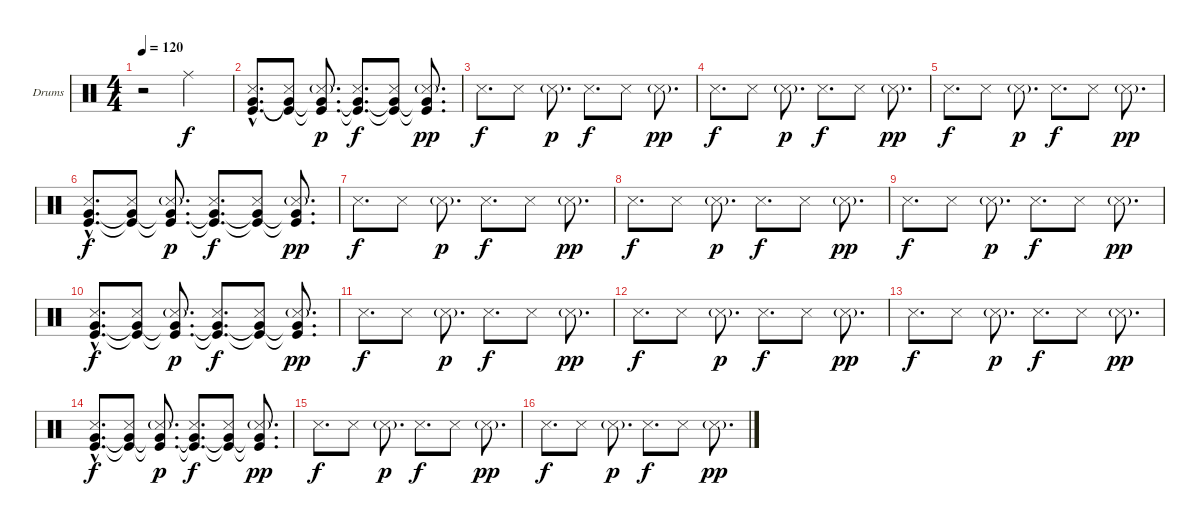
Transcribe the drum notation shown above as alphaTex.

\bracketExtendMode groupsimilarinstruments
\firstSystemTrackNameOrientation horizontal
\otherSystemsTrackNameOrientation horizontal
\track ("Drumkit (Christoph)" "Drums") {instrument percussion}
\staff {score}
\articulation defaults
\ts (4 4)
\tempo 120
\clef neutral
\ks c
r.2{dy f} "Ride (middle)".2 |
("Snare (side stick) 3" "Kick (hit)"{hac} "Very Low Tom (hit)"{hac}).8{d} ("Snare (side stick) 3" "Very Low Tom (hit)"{t} "Kick (hit)"{t}).8 ("Snare (side stick) 3"{g} "Very Low Tom (hit)"{t} "Kick (hit)"{t}).8{d dy p} ("Snare (side stick) 3" "Very Low Tom (hit)"{t} "Kick (hit)"{t}).8{d dy f} ("Snare (side stick) 3" "Very Low Tom (hit)"{t} "Kick (hit)"{t}).8 ("Snare (side stick) 3"{g} "Very Low Tom (hit)"{t} "Kick (hit)"{t}).8{d dy pp} |
"Snare (side stick) 3".8{d dy f} "Snare (side stick) 3".8 "Snare (side stick) 3"{g}.8{d dy p} "Snare (side stick) 3".8{d dy f} "Snare (side stick) 3".8 "Snare (side stick) 3"{g}.8{d dy pp} |
"Snare (side stick) 3".8{d dy f} "Snare (side stick) 3".8 "Snare (side stick) 3"{g}.8{d dy p} "Snare (side stick) 3".8{d dy f} "Snare (side stick) 3".8 "Snare (side stick) 3"{g}.8{d dy pp} |
"Snare (side stick) 3".8{d dy f} "Snare (side stick) 3".8 "Snare (side stick) 3"{g}.8{d dy p} "Snare (side stick) 3".8{d dy f} "Snare (side stick) 3".8 "Snare (side stick) 3"{g}.8{d dy pp} |
("Snare (side stick) 3" "Kick (hit)"{hac} "Very Low Tom (hit)"{hac}).8{d dy f} ("Snare (side stick) 3" "Kick (hit)"{t} "Very Low Tom (hit)"{t}).8 ("Snare (side stick) 3"{g} "Kick (hit)"{t} "Very Low Tom (hit)"{t}).8{d dy p} ("Snare (side stick) 3" "Kick (hit)"{t} "Very Low Tom (hit)"{t}).8{d dy f} ("Snare (side stick) 3" "Kick (hit)"{t} "Very Low Tom (hit)"{t}).8 ("Snare (side stick) 3"{g} "Kick (hit)"{t} "Very Low Tom (hit)"{t}).8{d dy pp} |
"Snare (side stick) 3".8{d dy f} "Snare (side stick) 3".8 "Snare (side stick) 3"{g}.8{d dy p} "Snare (side stick) 3".8{d dy f} "Snare (side stick) 3".8 "Snare (side stick) 3"{g}.8{d dy pp} |
"Snare (side stick) 3".8{d dy f} "Snare (side stick) 3".8 "Snare (side stick) 3"{g}.8{d dy p} "Snare (side stick) 3".8{d dy f} "Snare (side stick) 3".8 "Snare (side stick) 3"{g}.8{d dy pp} |
"Snare (side stick) 3".8{d dy f} "Snare (side stick) 3".8 "Snare (side stick) 3"{g}.8{d dy p} "Snare (side stick) 3".8{d dy f} "Snare (side stick) 3".8 "Snare (side stick) 3"{g}.8{d dy pp} |
("Snare (side stick) 3" "Kick (hit)"{hac} "Very Low Tom (hit)"{hac}).8{d dy f} ("Snare (side stick) 3" "Kick (hit)"{t} "Very Low Tom (hit)"{t}).8 ("Snare (side stick) 3"{g} "Kick (hit)"{t} "Very Low Tom (hit)"{t}).8{d dy p} ("Snare (side stick) 3" "Kick (hit)"{t} "Very Low Tom (hit)"{t}).8{d dy f} ("Snare (side stick) 3" "Kick (hit)"{t} "Very Low Tom (hit)"{t}).8 ("Snare (side stick) 3"{g} "Kick (hit)"{t} "Very Low Tom (hit)"{t}).8{d dy pp} |
"Snare (side stick) 3".8{d dy f} "Snare (side stick) 3".8 "Snare (side stick) 3"{g}.8{d dy p} "Snare (side stick) 3".8{d dy f} "Snare (side stick) 3".8 "Snare (side stick) 3"{g}.8{d dy pp} |
"Snare (side stick) 3".8{d dy f} "Snare (side stick) 3".8 "Snare (side stick) 3"{g}.8{d dy p} "Snare (side stick) 3".8{d dy f} "Snare (side stick) 3".8 "Snare (side stick) 3"{g}.8{d dy pp} |
"Snare (side stick) 3".8{d dy f} "Snare (side stick) 3".8 "Snare (side stick) 3"{g}.8{d dy p} "Snare (side stick) 3".8{d dy f} "Snare (side stick) 3".8 "Snare (side stick) 3"{g}.8{d dy pp} |
("Snare (side stick) 3" "Kick (hit)"{hac} "Very Low Tom (hit)"{hac}).8{d dy f} ("Snare (side stick) 3" "Kick (hit)"{t} "Very Low Tom (hit)"{t}).8 ("Snare (side stick) 3"{g} "Kick (hit)"{t} "Very Low Tom (hit)"{t}).8{d dy p} ("Snare (side stick) 3" "Kick (hit)"{t} "Very Low Tom (hit)"{t}).8{d dy f} ("Snare (side stick) 3" "Kick (hit)"{t} "Very Low Tom (hit)"{t}).8 ("Snare (side stick) 3"{g} "Kick (hit)"{t} "Very Low Tom (hit)"{t}).8{d dy pp} |
"Snare (side stick) 3".8{d dy f} "Snare (side stick) 3".8 "Snare (side stick) 3"{g}.8{d dy p} "Snare (side stick) 3".8{d dy f} "Snare (side stick) 3".8 "Snare (side stick) 3"{g}.8{d dy pp} |
"Snare (side stick) 3".8{d dy f} "Snare (side stick) 3".8 "Snare (side stick) 3"{g}.8{d dy p} "Snare (side stick) 3".8{d dy f} "Snare (side stick) 3".8 "Snare (side stick) 3"{g}.8{d dy pp}
